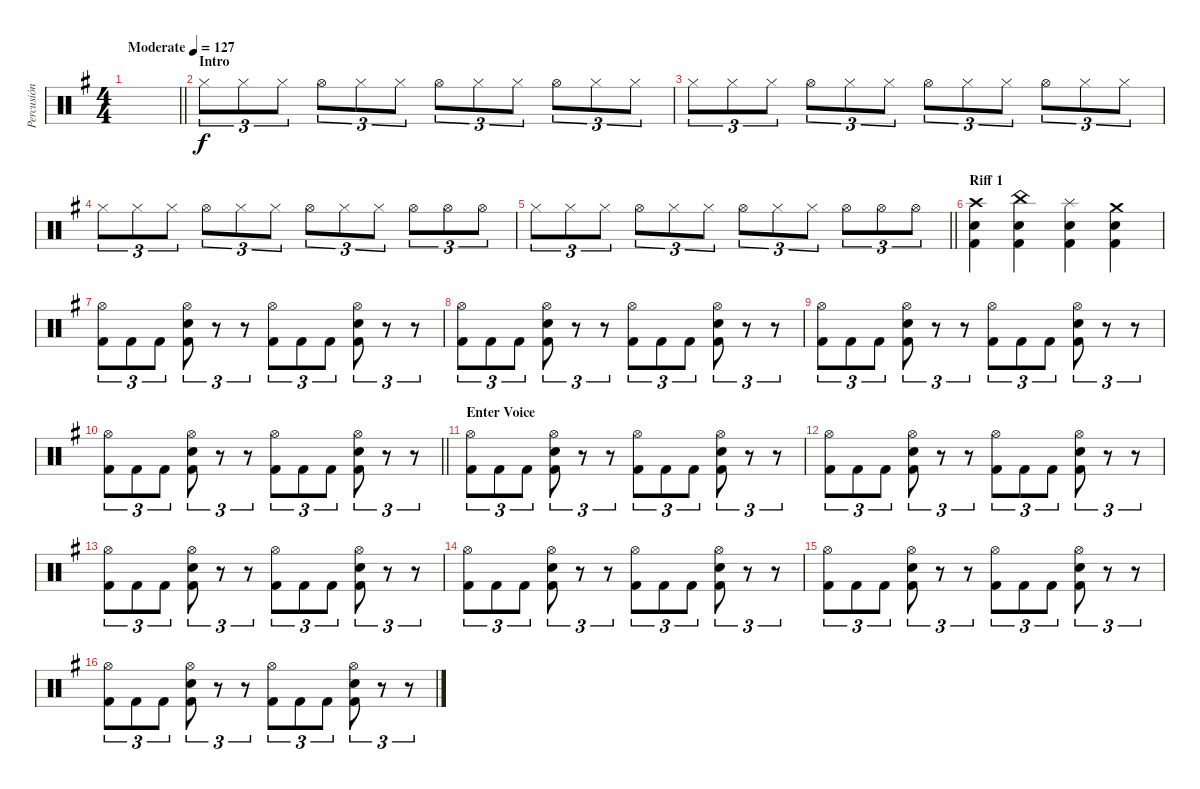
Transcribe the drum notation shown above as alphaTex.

\track ("Percusión" "Percusión") {instrument percussion}
\staff {score}
\articulation defaults
\ts (4 4)
\tempo (127 "Moderate")
\clef neutral
\barLineRight lightlight
\ks eminor
|
\section ("" "Intro")
"Hi-Hat (closed)".8{tu (3 2)} "Hi-Hat (closed)".8{tu (3 2)} "Hi-Hat (closed)".8{tu (3 2)} "Hi-Hat (open)".8{tu (3 2)} "Hi-Hat (closed)".8{tu (3 2)} "Hi-Hat (closed)".8{tu (3 2)} "Hi-Hat (open)".8{tu (3 2)} "Hi-Hat (closed)".8{tu (3 2)} "Hi-Hat (closed)".8{tu (3 2)} "Hi-Hat (open)".8{tu (3 2)} "Hi-Hat (closed)".8{tu (3 2)} "Hi-Hat (closed)".8{tu (3 2)} |
"Hi-Hat (closed)".8{tu (3 2)} "Hi-Hat (closed)".8{tu (3 2)} "Hi-Hat (closed)".8{tu (3 2)} "Hi-Hat (open)".8{tu (3 2)} "Hi-Hat (closed)".8{tu (3 2)} "Hi-Hat (closed)".8{tu (3 2)} "Hi-Hat (open)".8{tu (3 2)} "Hi-Hat (closed)".8{tu (3 2)} "Hi-Hat (closed)".8{tu (3 2)} "Hi-Hat (open)".8{tu (3 2)} "Hi-Hat (closed)".8{tu (3 2)} "Hi-Hat (closed)".8{tu (3 2)} |
"Hi-Hat (closed)".8{tu (3 2)} "Hi-Hat (closed)".8{tu (3 2)} "Hi-Hat (closed)".8{tu (3 2)} "Hi-Hat (open)".8{tu (3 2)} "Hi-Hat (closed)".8{tu (3 2)} "Hi-Hat (closed)".8{tu (3 2)} "Hi-Hat (open)".8{tu (3 2)} "Hi-Hat (closed)".8{tu (3 2)} "Hi-Hat (closed)".8{tu (3 2)} "Hi-Hat (open)".8{tu (3 2)} "Hi-Hat (open)".8{tu (3 2)} "Hi-Hat (open)".8{tu (3 2)} |
\barLineRight lightlight "Hi-Hat (closed)".8{tu (3 2)} "Hi-Hat (closed)".8{tu (3 2)} "Hi-Hat (closed)".8{tu (3 2)} "Hi-Hat (open)".8{tu (3 2)} "Hi-Hat (closed)".8{tu (3 2)} "Hi-Hat (closed)".8{tu (3 2)} "Hi-Hat (open)".8{tu (3 2)} "Hi-Hat (closed)".8{tu (3 2)} "Hi-Hat (closed)".8{tu (3 2)} "Hi-Hat (open)".8{tu (3 2)} "Hi-Hat (open)".8{tu (3 2)} "Hi-Hat (open)".8{tu (3 2)}
|
\section ("" "Riff 1")
("Kick (hit) 2" "Electric Snare (hit)" "Crash high (hit)").4 ("Kick (hit) 2" "Electric Snare (hit)" "China (hit)").4 ("Kick (hit) 2" "Electric Snare (hit)" "Splash (hit)").4 ("Kick (hit) 2" "Electric Snare (hit)" "Crash medium (hit)").4 |
("Hi-Hat (open)" "Kick (hit) 2").8{tu (3 2)} "Kick (hit) 2".8{tu (3 2)} "Kick (hit) 2".8{tu (3 2)} ("Hi-Hat (open)" "Kick (hit) 2" "Electric Snare (hit)").8{tu (3 2)} r.8{tu (3 2)} r.8{tu (3 2)} ("Hi-Hat (open)" "Kick (hit) 2").8{tu (3 2)} "Kick (hit) 2".8{tu (3 2)} "Kick (hit) 2".8{tu (3 2)} ("Hi-Hat (open)" "Kick (hit) 2" "Electric Snare (hit)").8{tu (3 2)} r.8{tu (3 2)} r.8{tu (3 2)} |
("Hi-Hat (open)" "Kick (hit) 2").8{tu (3 2)} "Kick (hit) 2".8{tu (3 2)} "Kick (hit) 2".8{tu (3 2)} ("Hi-Hat (open)" "Kick (hit) 2" "Electric Snare (hit)").8{tu (3 2)} r.8{tu (3 2)} r.8{tu (3 2)} ("Hi-Hat (open)" "Kick (hit) 2").8{tu (3 2)} "Kick (hit) 2".8{tu (3 2)} "Kick (hit) 2".8{tu (3 2)} ("Hi-Hat (open)" "Kick (hit) 2" "Electric Snare (hit)").8{tu (3 2)} r.8{tu (3 2)} r.8{tu (3 2)} |
("Hi-Hat (open)" "Kick (hit) 2").8{tu (3 2)} "Kick (hit) 2".8{tu (3 2)} "Kick (hit) 2".8{tu (3 2)} ("Hi-Hat (open)" "Kick (hit) 2" "Electric Snare (hit)").8{tu (3 2)} r.8{tu (3 2)} r.8{tu (3 2)} ("Hi-Hat (open)" "Kick (hit) 2").8{tu (3 2)} "Kick (hit) 2".8{tu (3 2)} "Kick (hit) 2".8{tu (3 2)} ("Hi-Hat (open)" "Kick (hit) 2" "Electric Snare (hit)").8{tu (3 2)} r.8{tu (3 2)} r.8{tu (3 2)} |
\barLineRight lightlight
("Hi-Hat (open)" "Kick (hit) 2").8{tu (3 2)} "Kick (hit) 2".8{tu (3 2)} "Kick (hit) 2".8{tu (3 2)} ("Hi-Hat (open)" "Kick (hit) 2" "Electric Snare (hit)").8{tu (3 2)} r.8{tu (3 2)} r.8{tu (3 2)} ("Hi-Hat (open)" "Kick (hit) 2").8{tu (3 2)} "Kick (hit) 2".8{tu (3 2)} "Kick (hit) 2".8{tu (3 2)} ("Hi-Hat (open)" "Kick (hit) 2" "Electric Snare (hit)").8{tu (3 2)} r.8{tu (3 2)} r.8{tu (3 2)} |
\section ("" "Enter Voice")
("Hi-Hat (open)" "Kick (hit) 2").8{tu (3 2)} "Kick (hit) 2".8{tu (3 2)} "Kick (hit) 2".8{tu (3 2)} ("Hi-Hat (open)" "Kick (hit) 2" "Electric Snare (hit)").8{tu (3 2)} r.8{tu (3 2)} r.8{tu (3 2)} ("Hi-Hat (open)" "Kick (hit) 2").8{tu (3 2)} "Kick (hit) 2".8{tu (3 2)} "Kick (hit) 2".8{tu (3 2)} ("Hi-Hat (open)" "Kick (hit) 2" "Electric Snare (hit)").8{tu (3 2)} r.8{tu (3 2)} r.8{tu (3 2)} |
("Hi-Hat (open)" "Kick (hit) 2").8{tu (3 2)} "Kick (hit) 2".8{tu (3 2)} "Kick (hit) 2".8{tu (3 2)} ("Hi-Hat (open)" "Kick (hit) 2" "Electric Snare (hit)").8{tu (3 2)} r.8{tu (3 2)} r.8{tu (3 2)} ("Hi-Hat (open)" "Kick (hit) 2").8{tu (3 2)} "Kick (hit) 2".8{tu (3 2)} "Kick (hit) 2".8{tu (3 2)} ("Hi-Hat (open)" "Kick (hit) 2" "Electric Snare (hit)").8{tu (3 2)} r.8{tu (3 2)} r.8{tu (3 2)} |
("Hi-Hat (open)" "Kick (hit) 2").8{tu (3 2)} "Kick (hit) 2".8{tu (3 2)} "Kick (hit) 2".8{tu (3 2)} ("Hi-Hat (open)" "Kick (hit) 2" "Electric Snare (hit)").8{tu (3 2)} r.8{tu (3 2)} r.8{tu (3 2)} ("Hi-Hat (open)" "Kick (hit) 2").8{tu (3 2)} "Kick (hit) 2".8{tu (3 2)} "Kick (hit) 2".8{tu (3 2)} ("Hi-Hat (open)" "Kick (hit) 2" "Electric Snare (hit)").8{tu (3 2)} r.8{tu (3 2)} r.8{tu (3 2)} |
("Hi-Hat (open)" "Kick (hit) 2").8{tu (3 2)} "Kick (hit) 2".8{tu (3 2)} "Kick (hit) 2".8{tu (3 2)} ("Hi-Hat (open)" "Kick (hit) 2" "Electric Snare (hit)").8{tu (3 2)} r.8{tu (3 2)} r.8{tu (3 2)} ("Hi-Hat (open)" "Kick (hit) 2").8{tu (3 2)} "Kick (hit) 2".8{tu (3 2)} "Kick (hit) 2".8{tu (3 2)} ("Hi-Hat (open)" "Kick (hit) 2" "Electric Snare (hit)").8{tu (3 2)} r.8{tu (3 2)} r.8{tu (3 2)} |
("Hi-Hat (open)" "Kick (hit) 2").8{tu (3 2)} "Kick (hit) 2".8{tu (3 2)} "Kick (hit) 2".8{tu (3 2)} ("Hi-Hat (open)" "Kick (hit) 2" "Electric Snare (hit)").8{tu (3 2)} r.8{tu (3 2)} r.8{tu (3 2)} ("Hi-Hat (open)" "Kick (hit) 2").8{tu (3 2)} "Kick (hit) 2".8{tu (3 2)} "Kick (hit) 2".8{tu (3 2)} ("Hi-Hat (open)" "Kick (hit) 2" "Electric Snare (hit)").8{tu (3 2)} r.8{tu (3 2)} r.8{tu (3 2)} |
("Hi-Hat (open)" "Kick (hit) 2").8{tu (3 2)} "Kick (hit) 2".8{tu (3 2)} "Kick (hit) 2".8{tu (3 2)} ("Hi-Hat (open)" "Kick (hit) 2" "Electric Snare (hit)").8{tu (3 2)} r.8{tu (3 2)} r.8{tu (3 2)} ("Hi-Hat (open)" "Kick (hit) 2").8{tu (3 2)} "Kick (hit) 2".8{tu (3 2)} "Kick (hit) 2".8{tu (3 2)} ("Hi-Hat (open)" "Kick (hit) 2" "Electric Snare (hit)").8{tu (3 2)} r.8{tu (3 2)} r.8{tu (3 2)}
